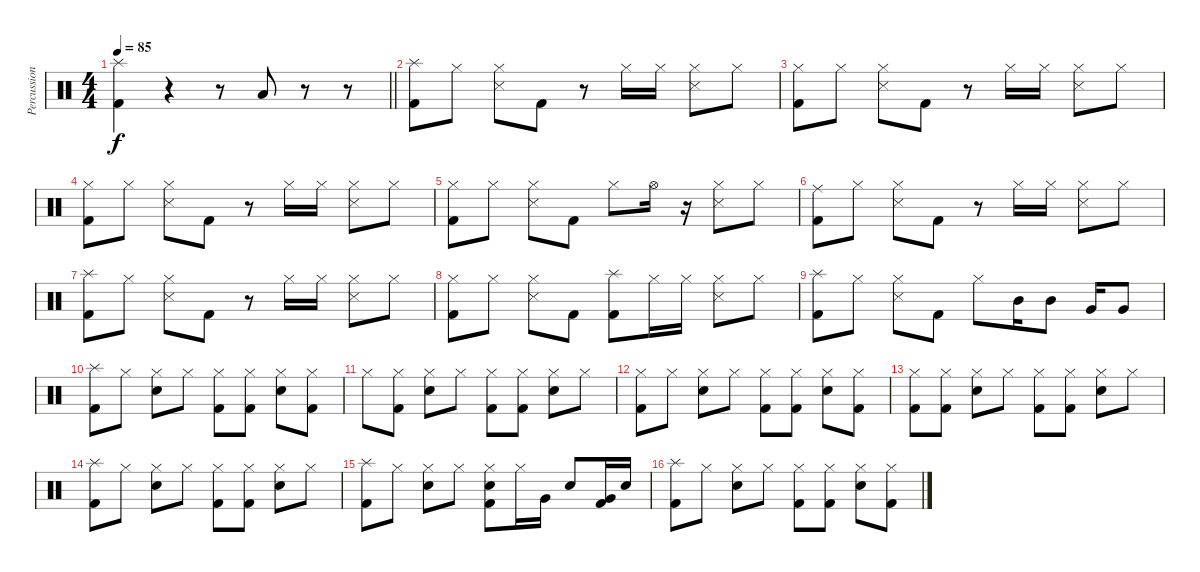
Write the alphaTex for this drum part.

\track ("Percussion" "Percussion") {instrument percussion}
\staff {score}
\articulation defaults
\ts (4 4)
\tempo 85
\clef neutral
\barLineRight lightlight
\ks c
("Splash (hit)" "Kick (hit) 2").4{dy f} r.4 r.8 "Low Tom (hit)".8 r.8 r.8 |
("Splash (hit)" "Kick (hit) 2").8 "Hi-Hat (closed)".8 ("Hi-Hat (closed)" "Snare (side stick) 3").8 "Kick (hit) 2".8 r.8 "Hi-Hat (closed)".16 "Hi-Hat (closed)".16 ("Hi-Hat (closed)" "Snare (side stick) 3").8 "Hi-Hat (closed)".8 |
("Hi-Hat (closed)" "Kick (hit) 2").8 "Hi-Hat (closed)".8 ("Hi-Hat (closed)" "Snare (side stick) 3").8 "Kick (hit) 2".8 r.8 "Hi-Hat (closed)".16 "Hi-Hat (closed)".16 ("Hi-Hat (closed)" "Snare (side stick) 3").8 "Hi-Hat (closed)".8 |
("Hi-Hat (closed)" "Kick (hit) 2").8 "Hi-Hat (closed)".8 ("Hi-Hat (closed)" "Snare (side stick) 3").8 "Kick (hit) 2".8 r.8 "Hi-Hat (closed)".16 "Hi-Hat (closed)".16 ("Hi-Hat (closed)" "Snare (side stick) 3").8 "Hi-Hat (closed)".8 |
("Hi-Hat (closed)" "Kick (hit) 2").8 "Hi-Hat (closed)".8 ("Hi-Hat (closed)" "Snare (side stick) 3").8 "Kick (hit) 2".8 "Hi-Hat (closed)".8 "Hi-Hat (open)".16 r.16 ("Hi-Hat (closed)" "Snare (side stick) 3").8 "Hi-Hat (closed)".8 |
("Ride (middle)" "Kick (hit) 2").8 "Hi-Hat (closed)".8 ("Hi-Hat (closed)" "Snare (side stick) 3").8 "Kick (hit) 2".8 r.8 "Hi-Hat (closed)".16 "Hi-Hat (closed)".16 ("Hi-Hat (closed)" "Snare (side stick) 3").8 "Hi-Hat (closed)".8 |
("Splash (hit)" "Kick (hit) 2").8 "Hi-Hat (closed)".8 ("Hi-Hat (closed)" "Snare (side stick) 3").8 "Kick (hit) 2".8 r.8 "Hi-Hat (closed)".16 "Hi-Hat (closed)".16 ("Hi-Hat (closed)" "Snare (side stick) 3").8 "Hi-Hat (closed)".8 |
("Hi-Hat (closed)" "Kick (hit) 2").8 "Hi-Hat (closed)".8 ("Hi-Hat (closed)" "Snare (side stick) 3").8 "Kick (hit) 2".8 ("Splash (hit)" "Kick (hit) 2").8 "Hi-Hat (closed)".16 "Hi-Hat (closed)".16 ("Hi-Hat (closed)" "Snare (side stick) 3").8 "Hi-Hat (closed)".8 |
("Splash (hit)" "Kick (hit) 2").8 "Hi-Hat (closed)".8 ("Hi-Hat (closed)" "Snare (side stick) 3").8 "Kick (hit) 2".8 "Hi-Hat (closed)".8 "Mid Tom (hit)".16 "Mid Tom (hit)".8 "Very Low Tom (hit)".16 "Very Low Tom (hit)".8 |
("Splash (hit)" "Kick (hit) 2").8 "Hi-Hat (closed)".8 ("Hi-Hat (closed)" "Electric Snare (hit)").8 "Hi-Hat (closed)".8 ("Hi-Hat (closed)" "Kick (hit) 2").8 ("Hi-Hat (closed)" "Kick (hit) 2").8 ("Hi-Hat (closed)" "Electric Snare (hit)").8 ("Hi-Hat (closed)" "Kick (hit) 2").8 |
"Hi-Hat (closed)".8 ("Hi-Hat (closed)" "Kick (hit) 2").8 ("Hi-Hat (closed)" "Electric Snare (hit)").8 "Hi-Hat (closed)".8 ("Hi-Hat (closed)" "Kick (hit) 2").8 ("Hi-Hat (closed)" "Kick (hit) 2").8 ("Hi-Hat (closed)" "Electric Snare (hit)").8 "Hi-Hat (closed)".8 |
("Hi-Hat (closed)" "Kick (hit) 2").8 "Hi-Hat (closed)".8 ("Hi-Hat (closed)" "Electric Snare (hit)").8 "Hi-Hat (closed)".8 ("Hi-Hat (closed)" "Kick (hit) 2").8 ("Hi-Hat (closed)" "Kick (hit) 2").8 ("Hi-Hat (closed)" "Electric Snare (hit)").8 ("Hi-Hat (closed)" "Kick (hit) 2").8 |
("Hi-Hat (closed)" "Kick (hit) 2").8 ("Hi-Hat (closed)" "Kick (hit) 2").8 ("Hi-Hat (closed)" "Electric Snare (hit)").8 "Hi-Hat (closed)".8 ("Hi-Hat (closed)" "Kick (hit) 2").8 ("Hi-Hat (closed)" "Kick (hit) 2").8 ("Hi-Hat (closed)" "Electric Snare (hit)").8 "Hi-Hat (closed)".8 |
("Splash (hit)" "Kick (hit) 2").8 "Hi-Hat (closed)".8 ("Hi-Hat (closed)" "Electric Snare (hit)").8 "Hi-Hat (closed)".8 ("Hi-Hat (closed)" "Kick (hit) 2").8 ("Hi-Hat (closed)" "Kick (hit) 2").8 ("Hi-Hat (closed)" "Electric Snare (hit)").8 "Hi-Hat (closed)".8 |
("Splash (hit)" "Kick (hit) 2").8 "Hi-Hat (closed)".8 ("Hi-Hat (closed)" "Electric Snare (hit)").8 "Hi-Hat (closed)".8 ("Hi-Hat (closed)" "Electric Snare (hit)" "Kick (hit) 2").8 "Hi-Hat (closed)".16 "Very Low Tom (hit)".16 "Electric Snare (hit)".8 ("Very Low Tom (hit)" "Kick (hit) 2").16 "Electric Snare (hit)".16 |
("Splash (hit)" "Kick (hit) 2").8 "Hi-Hat (closed)".8 ("Hi-Hat (closed)" "Electric Snare (hit)").8 "Hi-Hat (closed)".8 ("Hi-Hat (closed)" "Kick (hit) 2").8 ("Hi-Hat (closed)" "Kick (hit) 2").8 ("Hi-Hat (closed)" "Electric Snare (hit)").8 ("Hi-Hat (closed)" "Kick (hit) 2").8
